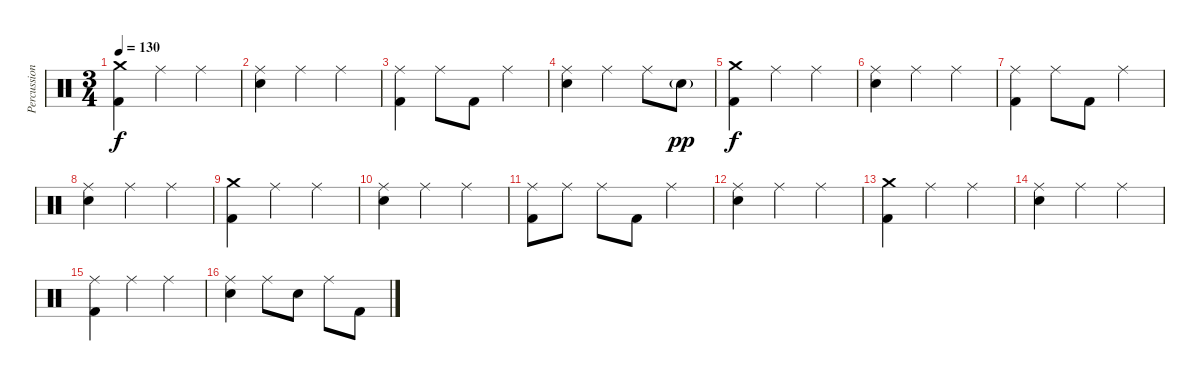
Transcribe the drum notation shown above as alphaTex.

\track ("Percussion" "Percussion") {instrument percussion}
\staff {score}
\articulation defaults
\ts (3 4)
\tempo 130
\clef neutral
\ks c
("Crash medium (hit)" "Kick (hit) 2").4{dy f} "Ride (middle)".4 "Ride (middle)".4 |
("Ride (middle)" "Electric Snare (hit)").4 "Ride (middle)".4 "Ride (middle)".4 |
("Ride (middle)" "Kick (hit) 2").4 "Ride (middle)".8 "Kick (hit) 2".8 "Ride (middle)".4 |
("Ride (middle)" "Electric Snare (hit)").4 "Ride (middle)".4 "Ride (middle)".8 "Electric Snare (hit)"{g}.8{dy pp} |
("Crash medium (hit)" "Kick (hit) 2").4{dy f} "Ride (middle)".4 "Ride (middle)".4 |
("Ride (middle)" "Electric Snare (hit)").4 "Ride (middle)".4 "Ride (middle)".4 |
("Ride (middle)" "Kick (hit) 2").4 "Ride (middle)".8 "Kick (hit) 2".8 "Ride (middle)".4 |
("Ride (middle)" "Electric Snare (hit)").4 "Ride (middle)".4 "Ride (middle)".4 |
("Crash medium (hit)" "Kick (hit) 2").4 "Ride (middle)".4 "Ride (middle)".4 |
("Ride (middle)" "Electric Snare (hit)").4 "Ride (middle)".4 "Ride (middle)".4 |
("Ride (middle)" "Kick (hit) 2").8 "Ride (middle)".8 "Ride (middle)".8 "Kick (hit) 2".8 "Ride (middle)".4 |
("Ride (middle)" "Electric Snare (hit)").4 "Ride (middle)".4 "Ride (middle)".4 |
("Crash medium (hit)" "Kick (hit) 2").4 "Ride (middle)".4 "Ride (middle)".4 |
("Ride (middle)" "Electric Snare (hit)").4 "Ride (middle)".4 "Ride (middle)".4 |
("Ride (middle)" "Kick (hit) 2").4 "Ride (middle)".4 "Ride (middle)".4 |
("Ride (middle)" "Electric Snare (hit)").4 "Ride (middle)".8 "Electric Snare (hit)".8 "Ride (middle)".8 "Kick (hit) 2".8
